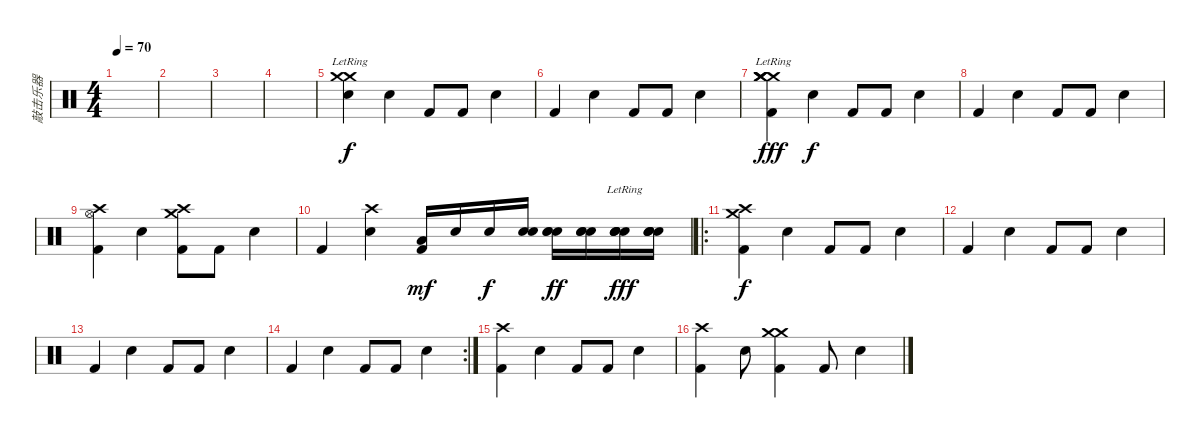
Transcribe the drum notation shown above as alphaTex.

\track ("敲击乐器" "敲击乐器") {instrument percussion}
\staff {score}
\articulation defaults
\ts (4 4)
\tempo 70
\clef neutral
\ks c
|
|
|
|
("Crash medium (hit)"{lr} "Crash medium (hit)"{lr} "Electric Snare (hit)"{lr}).4 "Electric Snare (hit)".4{dy f} "Kick (hit) 2".8 "Kick (hit) 2".8 "Electric Snare (hit)".4 |
"Kick (hit) 2".4 "Electric Snare (hit)".4 "Kick (hit) 2".8 "Kick (hit) 2".8 "Electric Snare (hit)".4 |
("Crash medium (hit)"{lr} "Kick (hit) 2" "Crash medium (hit)"{lr} "Crash medium (hit)" "Crash medium (hit)").4{dy fff} "Electric Snare (hit)".4{dy f} "Kick (hit) 2".8 "Kick (hit) 2".8 "Electric Snare (hit)".4 |
"Kick (hit) 2".4 "Electric Snare (hit)".4 "Kick (hit) 2".8 "Kick (hit) 2".8 "Electric Snare (hit)".4 |
("Hi-Hat (open)" "Kick (hit) 2" "Crash high (hit)").4 "Electric Snare (hit)".4 ("Crash medium (hit)" "Kick (hit) 2" "Crash high (hit)").8 "Kick (hit) 2".8 "Electric Snare (hit)".4 |
"Kick (hit) 2".4 ("Electric Snare (hit)" "Crash high (hit)").4 ("Low Tom (hit)" "Kick (hit) 2").16{dy mf} "Electric Snare (hit)".16 "Electric Snare (hit)".16{dy f} ("Electric Snare (hit)" "Electric Snare (hit)").16 ("Electric Snare (hit)" "Electric Snare (hit)" "Electric Snare (hit)").16{dy ff} ("Electric Snare (hit)" "Electric Snare (hit)" "Electric Snare (hit)").16 ("Electric Snare (hit)"{lr} "Electric Snare (hit)" "Electric Snare (hit)" "Electric Snare (hit)"{lr}).16{dy fff} ("Electric Snare (hit)"{lr} "Electric Snare (hit)" "Electric Snare (hit)" "Electric Snare (hit)"{lr}).16 |
\ro
("Crash high (hit)" "Kick (hit) 2" "Crash medium (hit)").4{dy f} "Electric Snare (hit)".4 "Kick (hit) 2".8 "Kick (hit) 2".8 "Electric Snare (hit)".4 |
"Kick (hit) 2".4 "Electric Snare (hit)".4 "Kick (hit) 2".8 "Kick (hit) 2".8 "Electric Snare (hit)".4 |
"Kick (hit) 2".4 "Electric Snare (hit)".4 "Kick (hit) 2".8 "Kick (hit) 2".8 "Electric Snare (hit)".4 |
\rc 2 "Kick (hit) 2".4 "Electric Snare (hit)".4 "Kick (hit) 2".8 "Kick (hit) 2".8 "Electric Snare (hit)".4
|
("Kick (hit) 2" "Crash high (hit)").4 "Electric Snare (hit)".4 "Kick (hit) 2".8 "Kick (hit) 2".8 "Electric Snare (hit)".4 |
("Kick (hit) 2" "Crash high (hit)").4 "Electric Snare (hit)".8 ("Kick (hit) 2" "Crash medium (hit)" "Crash medium (hit)").4 "Kick (hit) 2".8 "Electric Snare (hit)".4
